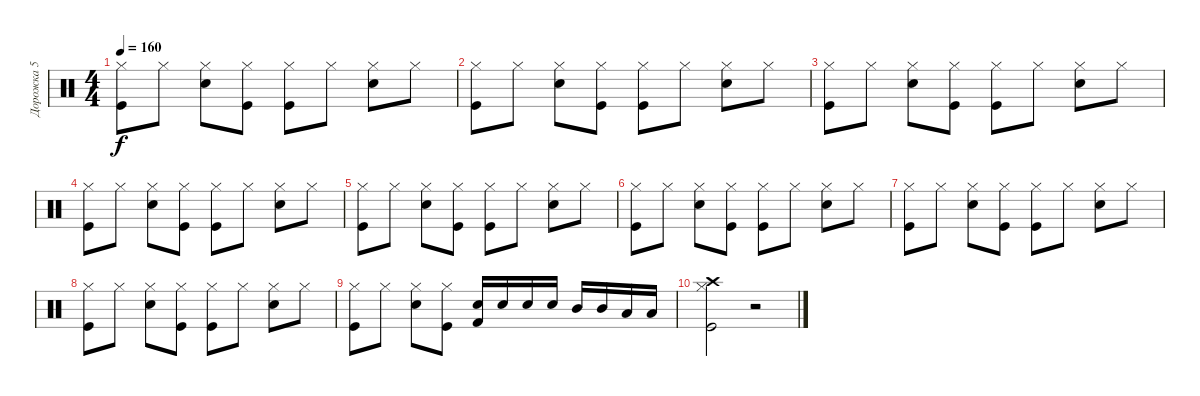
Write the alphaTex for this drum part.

\track ("Дорожка 5" "Дорожка 5") {solo instrument percussion}
\staff {score}
\articulation defaults
\ts (4 4)
\tempo 160
\clef neutral
\ks c
("Kick (hit)" "Hi-Hat (closed)").8{dy f} "Hi-Hat (closed)".8 ("Hi-Hat (closed)" "Snare (hit) 2").8 ("Kick (hit)" "Hi-Hat (closed)").8 ("Kick (hit)" "Hi-Hat (closed)").8 "Hi-Hat (closed)".8 ("Hi-Hat (closed)" "Snare (hit) 2").8 "Hi-Hat (closed)".8 |
("Kick (hit)" "Hi-Hat (closed)").8 "Hi-Hat (closed)".8 ("Hi-Hat (closed)" "Snare (hit) 2").8 ("Kick (hit)" "Hi-Hat (closed)").8 ("Kick (hit)" "Hi-Hat (closed)").8 "Hi-Hat (closed)".8 ("Hi-Hat (closed)" "Snare (hit) 2").8 "Hi-Hat (closed)".8 |
("Kick (hit)" "Hi-Hat (closed)").8 "Hi-Hat (closed)".8 ("Hi-Hat (closed)" "Snare (hit) 2").8 ("Kick (hit)" "Hi-Hat (closed)").8 ("Kick (hit)" "Hi-Hat (closed)").8 "Hi-Hat (closed)".8 ("Hi-Hat (closed)" "Snare (hit) 2").8 "Hi-Hat (closed)".8 |
("Kick (hit)" "Hi-Hat (closed)").8 "Hi-Hat (closed)".8 ("Hi-Hat (closed)" "Snare (hit) 2").8 ("Kick (hit)" "Hi-Hat (closed)").8 ("Kick (hit)" "Hi-Hat (closed)").8 "Hi-Hat (closed)".8 ("Hi-Hat (closed)" "Snare (hit) 2").8 "Hi-Hat (closed)".8 |
("Kick (hit)" "Hi-Hat (closed)").8 "Hi-Hat (closed)".8 ("Hi-Hat (closed)" "Snare (hit) 2").8 ("Kick (hit)" "Hi-Hat (closed)").8 ("Kick (hit)" "Hi-Hat (closed)").8 "Hi-Hat (closed)".8 ("Hi-Hat (closed)" "Snare (hit) 2").8 "Hi-Hat (closed)".8 |
("Kick (hit)" "Hi-Hat (closed)").8 "Hi-Hat (closed)".8 ("Hi-Hat (closed)" "Snare (hit) 2").8 ("Kick (hit)" "Hi-Hat (closed)").8 ("Kick (hit)" "Hi-Hat (closed)").8 "Hi-Hat (closed)".8 ("Hi-Hat (closed)" "Snare (hit) 2").8 "Hi-Hat (closed)".8 |
("Kick (hit)" "Hi-Hat (closed)").8 "Hi-Hat (closed)".8 ("Hi-Hat (closed)" "Snare (hit) 2").8 ("Kick (hit)" "Hi-Hat (closed)").8 ("Kick (hit)" "Hi-Hat (closed)").8 "Hi-Hat (closed)".8 ("Hi-Hat (closed)" "Snare (hit) 2").8 "Hi-Hat (closed)".8 |
("Kick (hit)" "Hi-Hat (closed)").8 "Hi-Hat (closed)".8 ("Hi-Hat (closed)" "Snare (hit) 2").8 ("Kick (hit)" "Hi-Hat (closed)").8 ("Kick (hit)" "Hi-Hat (closed)").8 "Hi-Hat (closed)".8 ("Hi-Hat (closed)" "Snare (hit) 2").8 "Hi-Hat (closed)".8 |
("Kick (hit)" "Hi-Hat (closed)").8 "Hi-Hat (closed)".8 ("Hi-Hat (closed)" "Snare (hit) 2").8 ("Kick (hit)" "Hi-Hat (closed)").8 ("Snare (hit) 2" "Kick (hit) 2").16 "Snare (hit) 2".16 "Snare (hit) 2".16 "Snare (hit) 2".16 "Mid Tom (hit)".16 "Mid Tom (hit)".16 "Low Tom (hit)".16 "Low Tom (hit)".16 |
("Kick (hit)" "Hi-Hat (closed)" "Crash high (hit)").2 r.2
